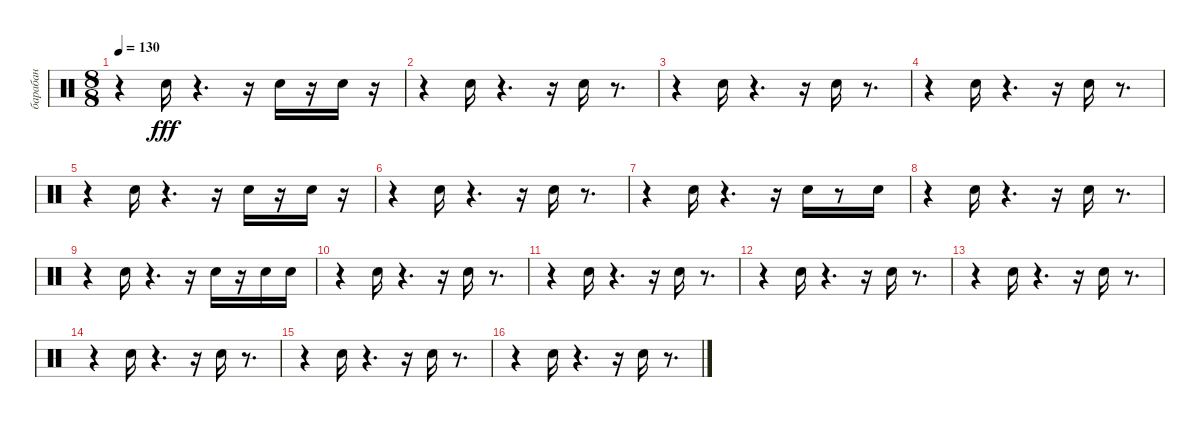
\track ("барабан" "барабан") {instrument percussion}
\staff {score}
\articulation defaults
\ts (8 8)
\tempo 130
\clef neutral
\ks c
r.4{dy fff} "Snare (hit) 2".16 r.4{d} r.16 "Snare (hit) 2".16 r.16 "Snare (hit) 2".16 r.16 |
r.4 "Snare (hit) 2".16 r.4{d} r.16 "Snare (hit) 2".16 r.8{d} |
r.4 "Snare (hit) 2".16 r.4{d} r.16 "Snare (hit) 2".16 r.8{d} |
r.4 "Snare (hit) 2".16 r.4{d} r.16 "Snare (hit) 2".16 r.8{d} |
r.4 "Snare (hit) 2".16 r.4{d} r.16 "Snare (hit) 2".16 r.16 "Snare (hit) 2".16 r.16 |
r.4 "Snare (hit) 2".16 r.4{d} r.16 "Snare (hit) 2".16 r.8{d} |
r.4 "Snare (hit) 2".16 r.4{d} r.16 "Snare (hit) 2".16 r.8 "Snare (hit) 2".16 |
r.4 "Snare (hit) 2".16 r.4{d} r.16 "Snare (hit) 2".16 r.8{d} |
r.4 "Snare (hit) 2".16 r.4{d} r.16 "Snare (hit) 2".16 r.16 "Snare (hit) 2".16 "Snare (hit) 2".16 |
r.4 "Snare (hit) 2".16 r.4{d} r.16 "Snare (hit) 2".16 r.8{d} |
r.4 "Snare (hit) 2".16 r.4{d} r.16 "Snare (hit) 2".16 r.8{d} |
r.4 "Snare (hit) 2".16 r.4{d} r.16 "Snare (hit) 2".16 r.8{d} |
r.4 "Snare (hit) 2".16 r.4{d} r.16 "Snare (hit) 2".16 r.8{d} |
r.4 "Snare (hit) 2".16 r.4{d} r.16 "Snare (hit) 2".16 r.8{d} |
r.4 "Snare (hit) 2".16 r.4{d} r.16 "Snare (hit) 2".16 r.8{d} |
r.4 "Snare (hit) 2".16 r.4{d} r.16 "Snare (hit) 2".16 r.8{d}
